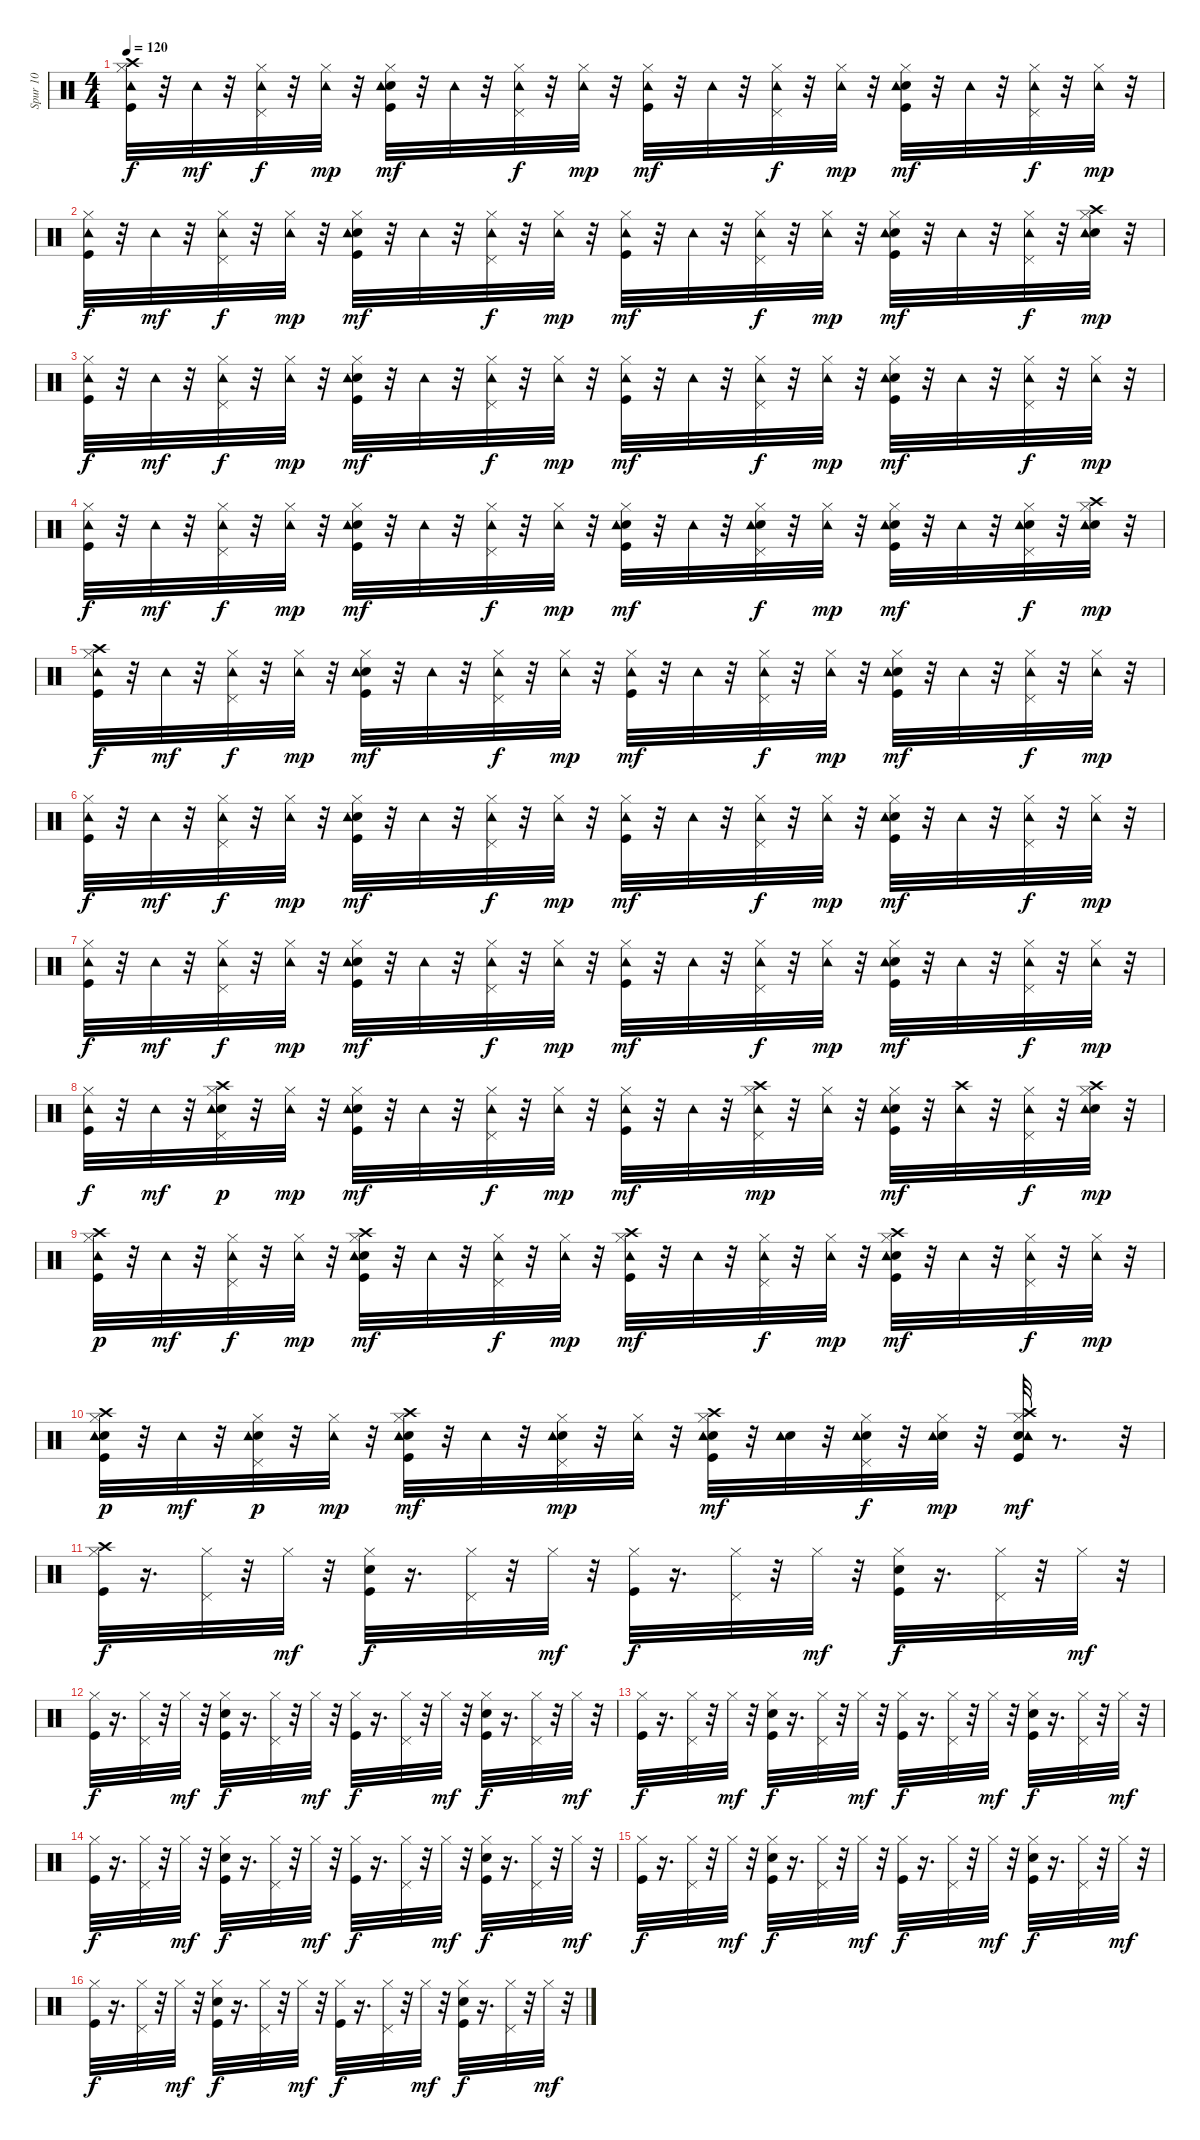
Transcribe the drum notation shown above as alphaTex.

\track ("Spur 10" "Spur 10") {instrument percussion}
\staff {score}
\articulation defaults
\ts (4 4)
\tempo 120
\clef neutral
\ks c
("Kick (hit)" "Hi-Hat (closed)" "Crash high (hit)" "Tambourine (hit)").32{dy f} r.32 "Tambourine (hit)".32{dy mf} r.32 ("Hi-Hat (closed)" "Pedal Hi-Hat (hit)" "Tambourine (hit)").32{dy f} r.32 ("Hi-Hat (closed)" "Tambourine (hit)").32{dy mp} r.32 ("Kick (hit)" "Snare (hit) 2" "Hi-Hat (closed)" "Tambourine (hit)").32{dy mf} r.32 "Tambourine (hit)".32 r.32 ("Hi-Hat (closed)" "Pedal Hi-Hat (hit)" "Tambourine (hit)").32{dy f} r.32 ("Hi-Hat (closed)" "Tambourine (hit)").32{dy mp} r.32 ("Kick (hit)" "Hi-Hat (closed)" "Tambourine (hit)").32{dy mf} r.32 "Tambourine (hit)".32 r.32 ("Hi-Hat (closed)" "Pedal Hi-Hat (hit)" "Tambourine (hit)").32{dy f} r.32 ("Hi-Hat (closed)" "Tambourine (hit)").32{dy mp} r.32 ("Kick (hit)" "Snare (hit) 2" "Hi-Hat (closed)" "Tambourine (hit)").32{dy mf} r.32 "Tambourine (hit)".32 r.32 ("Hi-Hat (closed)" "Pedal Hi-Hat (hit)" "Tambourine (hit)").32{dy f} r.32 ("Hi-Hat (closed)" "Tambourine (hit)").32{dy mp} r.32 |
("Kick (hit)" "Hi-Hat (closed)" "Tambourine (hit)").32{dy f} r.32 "Tambourine (hit)".32{dy mf} r.32 ("Hi-Hat (closed)" "Pedal Hi-Hat (hit)" "Tambourine (hit)").32{dy f} r.32 ("Hi-Hat (closed)" "Tambourine (hit)").32{dy mp} r.32 ("Kick (hit)" "Snare (hit) 2" "Hi-Hat (closed)" "Tambourine (hit)").32{dy mf} r.32 "Tambourine (hit)".32 r.32 ("Hi-Hat (closed)" "Pedal Hi-Hat (hit)" "Tambourine (hit)").32{dy f} r.32 ("Hi-Hat (closed)" "Tambourine (hit)").32{dy mp} r.32 ("Kick (hit)" "Hi-Hat (closed)" "Tambourine (hit)").32{dy mf} r.32 "Tambourine (hit)".32 r.32 ("Hi-Hat (closed)" "Pedal Hi-Hat (hit)" "Tambourine (hit)").32{dy f} r.32 ("Hi-Hat (closed)" "Tambourine (hit)").32{dy mp} r.32 ("Kick (hit)" "Snare (hit) 2" "Hi-Hat (closed)" "Tambourine (hit)").32{dy mf} r.32 "Tambourine (hit)".32 r.32 ("Hi-Hat (closed)" "Pedal Hi-Hat (hit)" "Tambourine (hit)").32{dy f} r.32 ("Snare (hit) 2" "Hi-Hat (closed)" "Crash high (hit)" "Tambourine (hit)").32{dy mp} r.32 |
("Kick (hit)" "Hi-Hat (closed)" "Tambourine (hit)").32{dy f} r.32 "Tambourine (hit)".32{dy mf} r.32 ("Hi-Hat (closed)" "Pedal Hi-Hat (hit)" "Tambourine (hit)").32{dy f} r.32 ("Hi-Hat (closed)" "Tambourine (hit)").32{dy mp} r.32 ("Kick (hit)" "Snare (hit) 2" "Hi-Hat (closed)" "Tambourine (hit)").32{dy mf} r.32 "Tambourine (hit)".32 r.32 ("Hi-Hat (closed)" "Pedal Hi-Hat (hit)" "Tambourine (hit)").32{dy f} r.32 ("Hi-Hat (closed)" "Tambourine (hit)").32{dy mp} r.32 ("Kick (hit)" "Hi-Hat (closed)" "Tambourine (hit)").32{dy mf} r.32 "Tambourine (hit)".32 r.32 ("Hi-Hat (closed)" "Pedal Hi-Hat (hit)" "Tambourine (hit)").32{dy f} r.32 ("Hi-Hat (closed)" "Tambourine (hit)").32{dy mp} r.32 ("Kick (hit)" "Snare (hit) 2" "Hi-Hat (closed)" "Tambourine (hit)").32{dy mf} r.32 "Tambourine (hit)".32 r.32 ("Hi-Hat (closed)" "Pedal Hi-Hat (hit)" "Tambourine (hit)").32{dy f} r.32 ("Hi-Hat (closed)" "Tambourine (hit)").32{dy mp} r.32 |
("Kick (hit)" "Hi-Hat (closed)" "Tambourine (hit)").32{dy f} r.32 "Tambourine (hit)".32{dy mf} r.32 ("Hi-Hat (closed)" "Pedal Hi-Hat (hit)" "Tambourine (hit)").32{dy f} r.32 ("Hi-Hat (closed)" "Tambourine (hit)").32{dy mp} r.32 ("Kick (hit)" "Snare (hit) 2" "Hi-Hat (closed)" "Tambourine (hit)").32{dy mf} r.32 "Tambourine (hit)".32 r.32 ("Hi-Hat (closed)" "Pedal Hi-Hat (hit)" "Tambourine (hit)").32{dy f} r.32 ("Hi-Hat (closed)" "Tambourine (hit)").32{dy mp} r.32 ("Kick (hit)" "Snare (hit) 2" "Hi-Hat (closed)" "Tambourine (hit)").32{dy mf} r.32 "Tambourine (hit)".32 r.32 ("Snare (hit) 2" "Hi-Hat (closed)" "Pedal Hi-Hat (hit)" "Tambourine (hit)").32{dy f} r.32 ("Hi-Hat (closed)" "Tambourine (hit)").32{dy mp} r.32 ("Kick (hit)" "Snare (hit) 2" "Hi-Hat (closed)" "Tambourine (hit)").32{dy mf} r.32 "Tambourine (hit)".32 r.32 ("Snare (hit) 2" "Hi-Hat (closed)" "Pedal Hi-Hat (hit)" "Tambourine (hit)").32{dy f} r.32 ("Snare (hit) 2" "Hi-Hat (closed)" "Crash high (hit)" "Tambourine (hit)").32{dy mp} r.32 |
("Kick (hit)" "Hi-Hat (closed)" "Crash high (hit)" "Tambourine (hit)").32{dy f} r.32 "Tambourine (hit)".32{dy mf} r.32 ("Hi-Hat (closed)" "Pedal Hi-Hat (hit)" "Tambourine (hit)").32{dy f} r.32 ("Hi-Hat (closed)" "Tambourine (hit)").32{dy mp} r.32 ("Kick (hit)" "Snare (hit) 2" "Hi-Hat (closed)" "Tambourine (hit)").32{dy mf} r.32 "Tambourine (hit)".32 r.32 ("Hi-Hat (closed)" "Pedal Hi-Hat (hit)" "Tambourine (hit)").32{dy f} r.32 ("Hi-Hat (closed)" "Tambourine (hit)").32{dy mp} r.32 ("Kick (hit)" "Hi-Hat (closed)" "Tambourine (hit)").32{dy mf} r.32 "Tambourine (hit)".32 r.32 ("Hi-Hat (closed)" "Pedal Hi-Hat (hit)" "Tambourine (hit)").32{dy f} r.32 ("Hi-Hat (closed)" "Tambourine (hit)").32{dy mp} r.32 ("Kick (hit)" "Snare (hit) 2" "Hi-Hat (closed)" "Tambourine (hit)").32{dy mf} r.32 "Tambourine (hit)".32 r.32 ("Hi-Hat (closed)" "Pedal Hi-Hat (hit)" "Tambourine (hit)").32{dy f} r.32 ("Hi-Hat (closed)" "Tambourine (hit)").32{dy mp} r.32 |
("Kick (hit)" "Hi-Hat (closed)" "Tambourine (hit)").32{dy f} r.32 "Tambourine (hit)".32{dy mf} r.32 ("Hi-Hat (closed)" "Pedal Hi-Hat (hit)" "Tambourine (hit)").32{dy f} r.32 ("Hi-Hat (closed)" "Tambourine (hit)").32{dy mp} r.32 ("Kick (hit)" "Snare (hit) 2" "Hi-Hat (closed)" "Tambourine (hit)").32{dy mf} r.32 "Tambourine (hit)".32 r.32 ("Hi-Hat (closed)" "Pedal Hi-Hat (hit)" "Tambourine (hit)").32{dy f} r.32 ("Hi-Hat (closed)" "Tambourine (hit)").32{dy mp} r.32 ("Kick (hit)" "Hi-Hat (closed)" "Tambourine (hit)").32{dy mf} r.32 "Tambourine (hit)".32 r.32 ("Hi-Hat (closed)" "Pedal Hi-Hat (hit)" "Tambourine (hit)").32{dy f} r.32 ("Hi-Hat (closed)" "Tambourine (hit)").32{dy mp} r.32 ("Kick (hit)" "Snare (hit) 2" "Hi-Hat (closed)" "Tambourine (hit)").32{dy mf} r.32 "Tambourine (hit)".32 r.32 ("Hi-Hat (closed)" "Pedal Hi-Hat (hit)" "Tambourine (hit)").32{dy f} r.32 ("Hi-Hat (closed)" "Tambourine (hit)").32{dy mp} r.32 |
("Kick (hit)" "Hi-Hat (closed)" "Tambourine (hit)").32{dy f} r.32 "Tambourine (hit)".32{dy mf} r.32 ("Hi-Hat (closed)" "Pedal Hi-Hat (hit)" "Tambourine (hit)").32{dy f} r.32 ("Hi-Hat (closed)" "Tambourine (hit)").32{dy mp} r.32 ("Kick (hit)" "Snare (hit) 2" "Hi-Hat (closed)" "Tambourine (hit)").32{dy mf} r.32 "Tambourine (hit)".32 r.32 ("Hi-Hat (closed)" "Pedal Hi-Hat (hit)" "Tambourine (hit)").32{dy f} r.32 ("Hi-Hat (closed)" "Tambourine (hit)").32{dy mp} r.32 ("Kick (hit)" "Hi-Hat (closed)" "Tambourine (hit)").32{dy mf} r.32 "Tambourine (hit)".32 r.32 ("Hi-Hat (closed)" "Pedal Hi-Hat (hit)" "Tambourine (hit)").32{dy f} r.32 ("Hi-Hat (closed)" "Tambourine (hit)").32{dy mp} r.32 ("Kick (hit)" "Snare (hit) 2" "Hi-Hat (closed)" "Tambourine (hit)").32{dy mf} r.32 "Tambourine (hit)".32 r.32 ("Hi-Hat (closed)" "Pedal Hi-Hat (hit)" "Tambourine (hit)").32{dy f} r.32 ("Hi-Hat (closed)" "Tambourine (hit)").32{dy mp} r.32 |
("Kick (hit)" "Hi-Hat (closed)" "Tambourine (hit)").32{dy f} r.32 "Tambourine (hit)".32{dy mf} r.32 ("Snare (hit) 2" "Hi-Hat (closed)" "Pedal Hi-Hat (hit)" "Crash high (hit)" "Tambourine (hit)").32{dy p} r.32 ("Hi-Hat (closed)" "Tambourine (hit)").32{dy mp} r.32 ("Kick (hit)" "Snare (hit) 2" "Hi-Hat (closed)" "Tambourine (hit)").32{dy mf} r.32 "Tambourine (hit)".32 r.32 ("Hi-Hat (closed)" "Pedal Hi-Hat (hit)" "Tambourine (hit)").32{dy f} r.32 ("Hi-Hat (closed)" "Tambourine (hit)").32{dy mp} r.32 ("Kick (hit)" "Hi-Hat (closed)" "Tambourine (hit)").32{dy mf} r.32 "Tambourine (hit)".32 r.32 ("Hi-Hat (closed)" "Pedal Hi-Hat (hit)" "Crash high (hit)" "Tambourine (hit)").32{dy mp} r.32 ("Hi-Hat (closed)" "Tambourine (hit)").32 r.32 ("Kick (hit)" "Snare (hit) 2" "Hi-Hat (closed)" "Tambourine (hit)").32{dy mf} r.32 ("Crash high (hit)" "Tambourine (hit)").32 r.32 ("Hi-Hat (closed)" "Pedal Hi-Hat (hit)" "Tambourine (hit)").32{dy f} r.32 ("Snare (hit) 2" "Hi-Hat (closed)" "Crash high (hit)" "Tambourine (hit)").32{dy mp} r.32 |
("Kick (hit)" "Hi-Hat (closed)" "Crash high (hit)" "Tambourine (hit)").32{dy p} r.32 "Tambourine (hit)".32{dy mf} r.32 ("Hi-Hat (closed)" "Pedal Hi-Hat (hit)" "Tambourine (hit)").32{dy f} r.32 ("Hi-Hat (closed)" "Tambourine (hit)").32{dy mp} r.32 ("Kick (hit)" "Snare (hit) 2" "Hi-Hat (closed)" "Crash high (hit)" "Tambourine (hit)").32{dy mf} r.32 "Tambourine (hit)".32 r.32 ("Hi-Hat (closed)" "Pedal Hi-Hat (hit)" "Tambourine (hit)").32{dy f} r.32 ("Hi-Hat (closed)" "Tambourine (hit)").32{dy mp} r.32 ("Kick (hit)" "Hi-Hat (closed)" "Crash high (hit)" "Tambourine (hit)").32{dy mf} r.32 "Tambourine (hit)".32 r.32 ("Hi-Hat (closed)" "Pedal Hi-Hat (hit)" "Tambourine (hit)").32{dy f} r.32 ("Hi-Hat (closed)" "Tambourine (hit)").32{dy mp} r.32 ("Kick (hit)" "Snare (hit) 2" "Hi-Hat (closed)" "Crash high (hit)" "Tambourine (hit)").32{dy mf} r.32 "Tambourine (hit)".32 r.32 ("Hi-Hat (closed)" "Pedal Hi-Hat (hit)" "Tambourine (hit)").32{dy f} r.32 ("Hi-Hat (closed)" "Tambourine (hit)").32{dy mp} r.32 |
("Kick (hit)" "Snare (hit) 2" "Hi-Hat (closed)" "Crash high (hit)" "Tambourine (hit)").32{dy p} r.32 "Tambourine (hit)".32{dy mf} r.32 ("Snare (hit) 2" "Hi-Hat (closed)" "Pedal Hi-Hat (hit)" "Tambourine (hit)").32{dy p} r.32 ("Hi-Hat (closed)" "Tambourine (hit)").32{dy mp} r.32 ("Kick (hit)" "Snare (hit) 2" "Hi-Hat (closed)" "Crash high (hit)" "Tambourine (hit)").32{dy mf} r.32 "Tambourine (hit)".32 r.32 ("Snare (hit) 2" "Hi-Hat (closed)" "Pedal Hi-Hat (hit)" "Tambourine (hit)").32{dy mp} r.32 ("Hi-Hat (closed)" "Tambourine (hit)").32 r.32 ("Kick (hit)" "Snare (hit) 2" "Hi-Hat (closed)" "Crash high (hit)" "Tambourine (hit)").32{dy mf} r.32 ("Snare (hit) 2" "Tambourine (hit)").32 r.32 ("Snare (hit) 2" "Hi-Hat (closed)" "Pedal Hi-Hat (hit)" "Tambourine (hit)").32{dy f} r.32 ("Snare (hit) 2" "Hi-Hat (closed)" "Tambourine (hit)").32{dy mp} r.32 ("Kick (hit)" "Snare (hit) 2" "Hi-Hat (closed)" "Crash high (hit)" "Tambourine (hit)").32{dy mf} r.8{d} r.32 |
("Kick (hit)" "Hi-Hat (closed)" "Crash high (hit)").32{dy f} r.16{d} ("Hi-Hat (closed)" "Pedal Hi-Hat (hit)").32 r.32 "Hi-Hat (closed)".32{dy mf} r.32 ("Kick (hit)" "Snare (hit) 2" "Hi-Hat (closed)").32{dy f} r.16{d} ("Hi-Hat (closed)" "Pedal Hi-Hat (hit)").32 r.32 "Hi-Hat (closed)".32{dy mf} r.32 ("Kick (hit)" "Hi-Hat (closed)").32{dy f} r.16{d} ("Hi-Hat (closed)" "Pedal Hi-Hat (hit)").32 r.32 "Hi-Hat (closed)".32{dy mf} r.32 ("Kick (hit)" "Snare (hit) 2" "Hi-Hat (closed)").32{dy f} r.16{d} ("Hi-Hat (closed)" "Pedal Hi-Hat (hit)").32 r.32 "Hi-Hat (closed)".32{dy mf} r.32 |
("Kick (hit)" "Hi-Hat (closed)").32{dy f} r.16{d} ("Hi-Hat (closed)" "Pedal Hi-Hat (hit)").32 r.32 "Hi-Hat (closed)".32{dy mf} r.32 ("Kick (hit)" "Snare (hit) 2" "Hi-Hat (closed)").32{dy f} r.16{d} ("Hi-Hat (closed)" "Pedal Hi-Hat (hit)").32 r.32 "Hi-Hat (closed)".32{dy mf} r.32 ("Kick (hit)" "Hi-Hat (closed)").32{dy f} r.16{d} ("Hi-Hat (closed)" "Pedal Hi-Hat (hit)").32 r.32 "Hi-Hat (closed)".32{dy mf} r.32 ("Kick (hit)" "Snare (hit) 2" "Hi-Hat (closed)").32{dy f} r.16{d} ("Hi-Hat (closed)" "Pedal Hi-Hat (hit)").32 r.32 "Hi-Hat (closed)".32{dy mf} r.32 |
("Kick (hit)" "Hi-Hat (closed)").32{dy f} r.16{d} ("Hi-Hat (closed)" "Pedal Hi-Hat (hit)").32 r.32 "Hi-Hat (closed)".32{dy mf} r.32 ("Kick (hit)" "Snare (hit) 2" "Hi-Hat (closed)").32{dy f} r.16{d} ("Hi-Hat (closed)" "Pedal Hi-Hat (hit)").32 r.32 "Hi-Hat (closed)".32{dy mf} r.32 ("Kick (hit)" "Hi-Hat (closed)").32{dy f} r.16{d} ("Hi-Hat (closed)" "Pedal Hi-Hat (hit)").32 r.32 "Hi-Hat (closed)".32{dy mf} r.32 ("Kick (hit)" "Snare (hit) 2" "Hi-Hat (closed)").32{dy f} r.16{d} ("Hi-Hat (closed)" "Pedal Hi-Hat (hit)").32 r.32 "Hi-Hat (closed)".32{dy mf} r.32 |
("Kick (hit)" "Hi-Hat (closed)").32{dy f} r.16{d} ("Hi-Hat (closed)" "Pedal Hi-Hat (hit)").32 r.32 "Hi-Hat (closed)".32{dy mf} r.32 ("Kick (hit)" "Snare (hit) 2" "Hi-Hat (closed)").32{dy f} r.16{d} ("Hi-Hat (closed)" "Pedal Hi-Hat (hit)").32 r.32 "Hi-Hat (closed)".32{dy mf} r.32 ("Kick (hit)" "Hi-Hat (closed)").32{dy f} r.16{d} ("Hi-Hat (closed)" "Pedal Hi-Hat (hit)").32 r.32 "Hi-Hat (closed)".32{dy mf} r.32 ("Kick (hit)" "Snare (hit) 2" "Hi-Hat (closed)").32{dy f} r.16{d} ("Hi-Hat (closed)" "Pedal Hi-Hat (hit)").32 r.32 "Hi-Hat (closed)".32{dy mf} r.32 |
("Kick (hit)" "Hi-Hat (closed)").32{dy f} r.16{d} ("Hi-Hat (closed)" "Pedal Hi-Hat (hit)").32 r.32 "Hi-Hat (closed)".32{dy mf} r.32 ("Kick (hit)" "Snare (hit) 2" "Hi-Hat (closed)").32{dy f} r.16{d} ("Hi-Hat (closed)" "Pedal Hi-Hat (hit)").32 r.32 "Hi-Hat (closed)".32{dy mf} r.32 ("Kick (hit)" "Hi-Hat (closed)").32{dy f} r.16{d} ("Hi-Hat (closed)" "Pedal Hi-Hat (hit)").32 r.32 "Hi-Hat (closed)".32{dy mf} r.32 ("Kick (hit)" "Snare (hit) 2" "Hi-Hat (closed)").32{dy f} r.16{d} ("Hi-Hat (closed)" "Pedal Hi-Hat (hit)").32 r.32 "Hi-Hat (closed)".32{dy mf} r.32 |
("Kick (hit)" "Hi-Hat (closed)").32{dy f} r.16{d} ("Hi-Hat (closed)" "Pedal Hi-Hat (hit)").32 r.32 "Hi-Hat (closed)".32{dy mf} r.32 ("Kick (hit)" "Snare (hit) 2" "Hi-Hat (closed)").32{dy f} r.16{d} ("Hi-Hat (closed)" "Pedal Hi-Hat (hit)").32 r.32 "Hi-Hat (closed)".32{dy mf} r.32 ("Kick (hit)" "Hi-Hat (closed)").32{dy f} r.16{d} ("Hi-Hat (closed)" "Pedal Hi-Hat (hit)").32 r.32 "Hi-Hat (closed)".32{dy mf} r.32 ("Kick (hit)" "Snare (hit) 2" "Hi-Hat (closed)").32{dy f} r.16{d} ("Hi-Hat (closed)" "Pedal Hi-Hat (hit)").32 r.32 "Hi-Hat (closed)".32{dy mf} r.32
